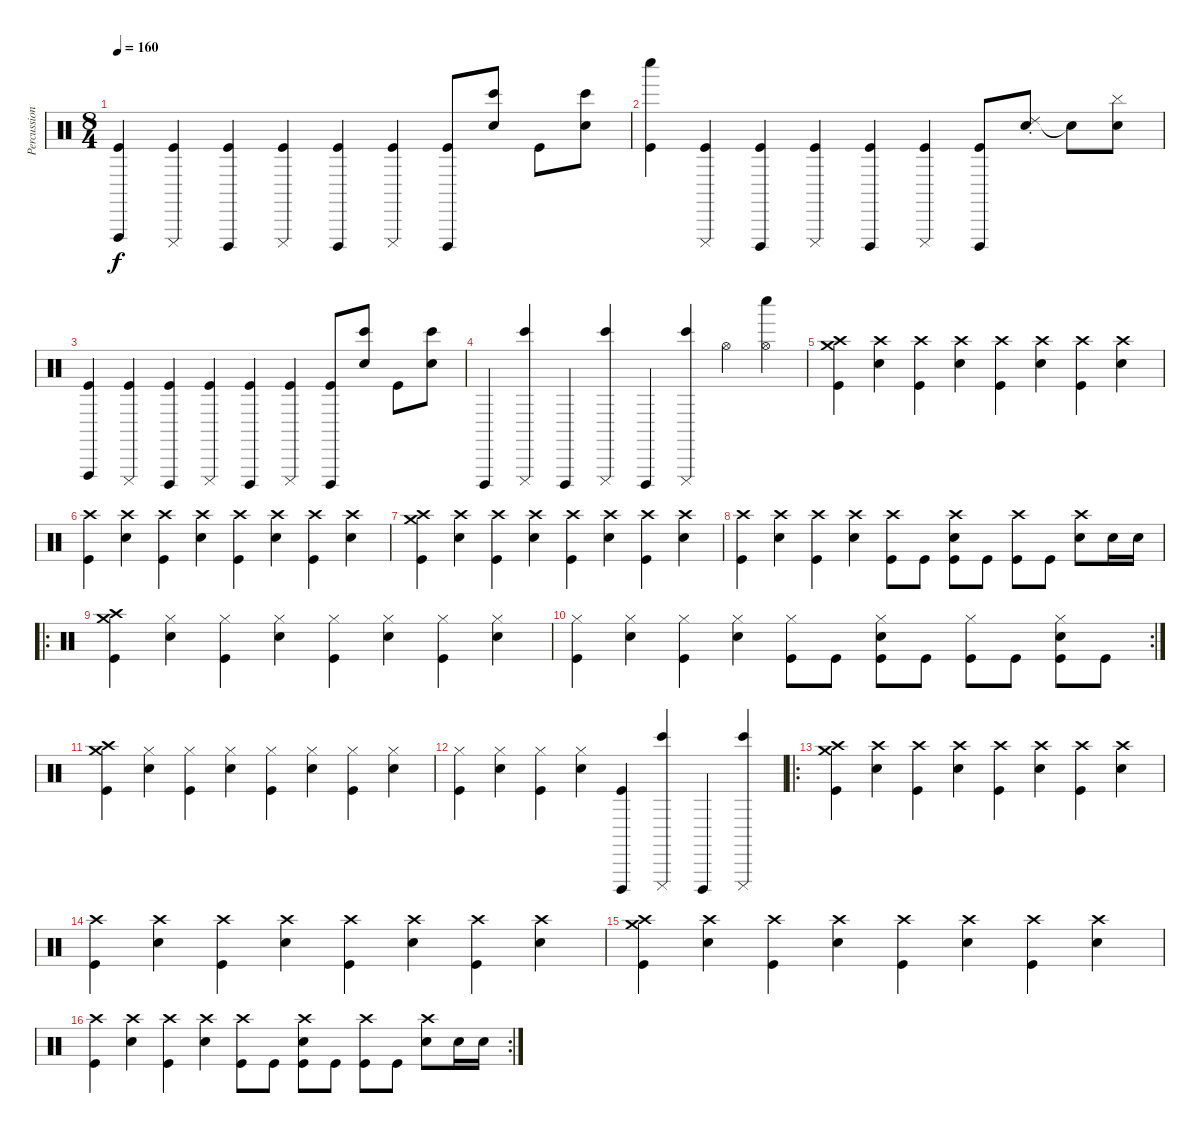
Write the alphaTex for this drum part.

\track ("Percussion" "Percussion") {instrument percussion}
\staff {score}
\articulation defaults
\ts (8 4)
\tempo 160
\clef neutral
\ks c
("Vibraslap (hit)" "Kick (hit)").4{dy f} ("Cuica (mute)" "Kick (hit)").4 ("Cuica (open)" "Kick (hit)").4 ("Cuica (mute)" "Kick (hit)").4 ("Cuica (open)" "Kick (hit)").4 ("Cuica (mute)" "Kick (hit)").4 ("Cuica (open)" "Kick (hit)").8 ("Bongo High (hit)" "Snare (hit) 2").8 "Kick (hit)".8 ("Bongo High (hit)" "Snare (hit) 2").8 |
("Whistle low (hit)" "Kick (hit)").4 ("Cuica (mute)" "Kick (hit)").4 ("Cuica (open)" "Kick (hit)").4 ("Cuica (mute)" "Kick (hit)").4 ("Cuica (open)" "Kick (hit)").4 ("Cuica (mute)" "Kick (hit)").4 ("Cuica (open)" "Kick (hit)").8 ("Ride (choke) 2" "Snare (hit) 2").8 "Snare (hit)"{t}.8 ("Cymbal (hit)" "Snare (hit) 2").8 |
("Vibraslap (hit)" "Kick (hit)").4 ("Cuica (mute)" "Kick (hit)").4 ("Cuica (open)" "Kick (hit)").4 ("Cuica (mute)" "Kick (hit)").4 ("Cuica (open)" "Kick (hit)").4 ("Cuica (mute)" "Kick (hit)").4 ("Cuica (open)" "Kick (hit)").8 ("Bongo High (hit)" "Snare (hit) 2").8 "Kick (hit)".8 ("Bongo High (hit)" "Snare (hit) 2").8 |
"Cuica (open)".4 ("Cuica (mute)" "Bongo High (hit)").4 "Cuica (open)".4 ("Cuica (mute)" "Bongo High (hit)").4 "Cuica (open)".4 ("Cuica (mute)" "Bongo High (hit)").4 "Hi-Hat (open)".4 ("Hi-Hat (open)" "Whistle low (hit)").4 |
("Crash medium (hit)" "Crash high (hit)" "Kick (hit)").4 ("Crash high (hit)" "Snare (hit) 2").4 ("Crash high (hit)" "Kick (hit)").4 ("Crash high (hit)" "Snare (hit) 2").4 ("Crash high (hit)" "Kick (hit)").4 ("Crash high (hit)" "Snare (hit) 2").4 ("Crash high (hit)" "Kick (hit)").4 ("Crash high (hit)" "Snare (hit) 2").4 |
("Crash high (hit)" "Kick (hit)").4 ("Crash high (hit)" "Snare (hit) 2").4 ("Crash high (hit)" "Kick (hit)").4 ("Crash high (hit)" "Snare (hit) 2").4 ("Crash high (hit)" "Kick (hit)").4 ("Crash high (hit)" "Snare (hit) 2").4 ("Crash high (hit)" "Kick (hit)").4 ("Crash high (hit)" "Snare (hit) 2").4 |
("Crash medium (hit)" "Crash high (hit)" "Kick (hit)").4 ("Crash high (hit)" "Snare (hit) 2").4 ("Crash high (hit)" "Kick (hit)").4 ("Crash high (hit)" "Snare (hit) 2").4 ("Crash high (hit)" "Kick (hit)").4 ("Crash high (hit)" "Snare (hit) 2").4 ("Crash high (hit)" "Kick (hit)").4 ("Crash high (hit)" "Snare (hit) 2").4 |
("Crash high (hit)" "Kick (hit)").4 ("Crash high (hit)" "Snare (hit) 2").4 ("Crash high (hit)" "Kick (hit)").4 ("Crash high (hit)" "Snare (hit) 2").4 ("Crash high (hit)" "Kick (hit)").8 "Kick (hit)".8 ("Crash high (hit)" "Snare (hit) 2" "Kick (hit)").8 "Kick (hit)".8 ("Crash high (hit)" "Kick (hit)").8 "Kick (hit)".8 ("Crash high (hit)" "Snare (hit) 2").8 "Snare (hit) 2".16 "Snare (hit) 2".16 |
\ro
("Crash medium (hit)" "Crash high (hit)" "Kick (hit)").4 ("Hi-Hat (closed)" "Snare (hit) 2").4 ("Hi-Hat (closed)" "Kick (hit)").4 ("Hi-Hat (closed)" "Snare (hit) 2").4 ("Hi-Hat (closed)" "Kick (hit)").4 ("Hi-Hat (closed)" "Snare (hit) 2").4 ("Hi-Hat (closed)" "Kick (hit)").4 ("Hi-Hat (closed)" "Snare (hit) 2").4 |
\rc 2
("Hi-Hat (closed)" "Kick (hit)").4 ("Hi-Hat (closed)" "Snare (hit) 2").4 ("Hi-Hat (closed)" "Kick (hit)").4 ("Hi-Hat (closed)" "Snare (hit) 2").4 ("Hi-Hat (closed)" "Kick (hit)").8 "Kick (hit)".8 ("Hi-Hat (closed)" "Snare (hit) 2" "Kick (hit)").8 "Kick (hit)".8 ("Hi-Hat (closed)" "Kick (hit)").8 "Kick (hit)".8 ("Hi-Hat (closed)" "Snare (hit) 2" "Kick (hit)").8 "Kick (hit)".8 |
("Crash medium (hit)" "Crash high (hit)" "Kick (hit)").4 ("Hi-Hat (closed)" "Snare (hit) 2").4 ("Hi-Hat (closed)" "Kick (hit)").4 ("Hi-Hat (closed)" "Snare (hit) 2").4 ("Hi-Hat (closed)" "Kick (hit)").4 ("Hi-Hat (closed)" "Snare (hit) 2").4 ("Hi-Hat (closed)" "Kick (hit)").4 ("Hi-Hat (closed)" "Snare (hit) 2").4 |
("Hi-Hat (closed)" "Kick (hit)").4 ("Hi-Hat (closed)" "Snare (hit) 2").4 ("Hi-Hat (closed)" "Kick (hit)").4 ("Hi-Hat (closed)" "Snare (hit) 2").4 ("Cuica (open)" "Kick (hit)").4 ("Cuica (mute)" "Bongo High (hit)").4 "Cuica (open)".4 ("Cuica (mute)" "Bongo High (hit)").4 |
\ro
("Crash medium (hit)" "Crash high (hit)" "Kick (hit)").4 ("Crash high (hit)" "Snare (hit) 2").4 ("Crash high (hit)" "Kick (hit)").4 ("Crash high (hit)" "Snare (hit) 2").4 ("Crash high (hit)" "Kick (hit)").4 ("Crash high (hit)" "Snare (hit) 2").4 ("Crash high (hit)" "Kick (hit)").4 ("Crash high (hit)" "Snare (hit) 2").4 |
("Crash high (hit)" "Kick (hit)").4 ("Crash high (hit)" "Snare (hit) 2").4 ("Crash high (hit)" "Kick (hit)").4 ("Crash high (hit)" "Snare (hit) 2").4 ("Crash high (hit)" "Kick (hit)").4 ("Crash high (hit)" "Snare (hit) 2").4 ("Crash high (hit)" "Kick (hit)").4 ("Crash high (hit)" "Snare (hit) 2").4 |
("Crash medium (hit)" "Crash high (hit)" "Kick (hit)").4 ("Crash high (hit)" "Snare (hit) 2").4 ("Crash high (hit)" "Kick (hit)").4 ("Crash high (hit)" "Snare (hit) 2").4 ("Crash high (hit)" "Kick (hit)").4 ("Crash high (hit)" "Snare (hit) 2").4 ("Crash high (hit)" "Kick (hit)").4 ("Crash high (hit)" "Snare (hit) 2").4 |
\rc 2
("Crash high (hit)" "Kick (hit)").4 ("Crash high (hit)" "Snare (hit) 2").4 ("Crash high (hit)" "Kick (hit)").4 ("Crash high (hit)" "Snare (hit) 2").4 ("Crash high (hit)" "Kick (hit)").8 "Kick (hit)".8 ("Crash high (hit)" "Snare (hit) 2" "Kick (hit)").8 "Kick (hit)".8 ("Crash high (hit)" "Kick (hit)").8 "Kick (hit)".8 ("Crash high (hit)" "Snare (hit) 2").8 "Snare (hit) 2".16 "Snare (hit) 2".16
